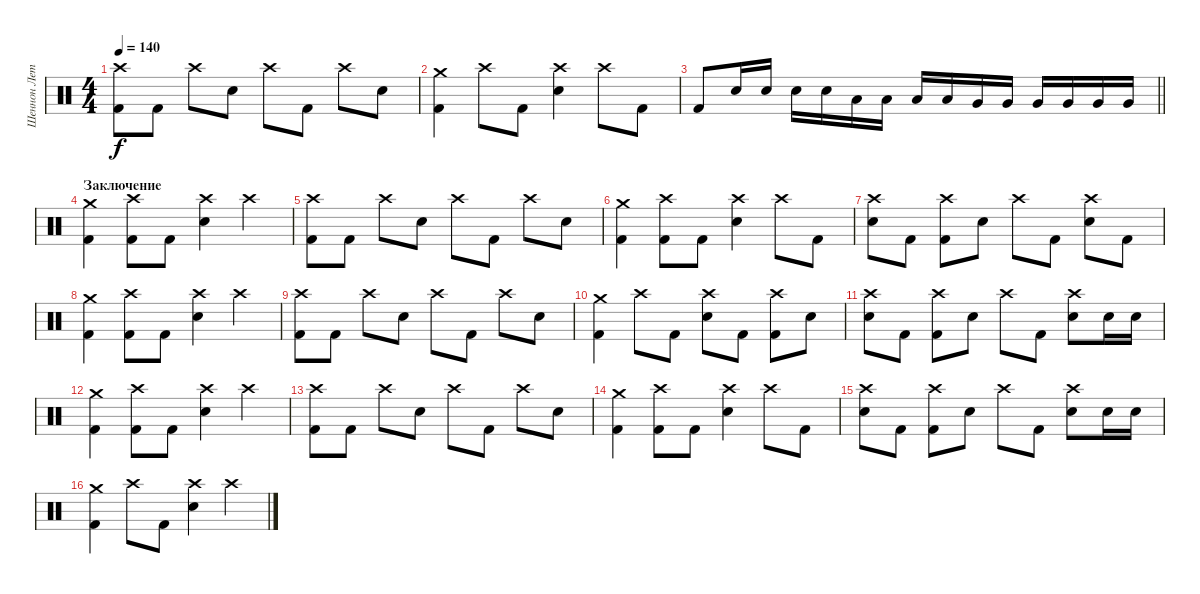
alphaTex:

\track ("Шеннон Лето" "Шеннон Лет") {instrument percussion}
\staff {score}
\articulation defaults
\ts (4 4)
\tempo 140
\clef neutral
\ks c
("Crash high (hit)" "Kick (hit) 2").8{dy f} "Kick (hit) 2".8 "Crash high (hit)".8 "Electric Snare (hit)".8 "Crash high (hit)".8 "Kick (hit) 2".8 "Crash high (hit)".8 "Electric Snare (hit)".8 |
("Crash medium (hit)" "Kick (hit) 2").4 "Crash high (hit)".8 "Kick (hit) 2".8 ("Crash high (hit)" "Electric Snare (hit)").4 "Crash high (hit)".8 "Kick (hit) 2".8 |
\barLineRight lightlight "Kick (hit) 2".8 "Electric Snare (hit)".16 "Electric Snare (hit)".16 "Electric Snare (hit)".16 "Electric Snare (hit)".16 "Low Tom (hit)".16 "Low Tom (hit)".16 "Low Tom (hit)".16 "Low Tom (hit)".16 "Very Low Tom (hit)".16 "Very Low Tom (hit)".16 "Very Low Tom (hit)".16 "Very Low Tom (hit)".16 "Very Low Tom (hit)".16 "Very Low Tom (hit)".16
|
\section ("" "Заключение")
("Crash medium (hit)" "Kick (hit) 2").4 ("Crash high (hit)" "Kick (hit) 2").8 "Kick (hit) 2".8 ("Crash high (hit)" "Electric Snare (hit)").4 "Crash high (hit)".4 |
("Crash high (hit)" "Kick (hit) 2").8 "Kick (hit) 2".8 "Crash high (hit)".8 "Electric Snare (hit)".8 "Crash high (hit)".8 "Kick (hit) 2".8 "Crash high (hit)".8 "Electric Snare (hit)".8 |
("Crash medium (hit)" "Kick (hit) 2").4 ("Crash high (hit)" "Kick (hit) 2").8 "Kick (hit) 2".8 ("Crash high (hit)" "Electric Snare (hit)").4 "Crash high (hit)".8 "Kick (hit) 2".8 |
("Crash high (hit)" "Electric Snare (hit)").8 "Kick (hit) 2".8 ("Crash high (hit)" "Kick (hit) 2").8 "Electric Snare (hit)".8 "Crash high (hit)".8 "Kick (hit) 2".8 ("Crash high (hit)" "Electric Snare (hit)").8 "Kick (hit) 2".8 |
("Crash medium (hit)" "Kick (hit) 2").4 ("Crash high (hit)" "Kick (hit) 2").8 "Kick (hit) 2".8 ("Crash high (hit)" "Electric Snare (hit)").4 "Crash high (hit)".4 |
("Crash high (hit)" "Kick (hit) 2").8 "Kick (hit) 2".8 "Crash high (hit)".8 "Electric Snare (hit)".8 "Crash high (hit)".8 "Kick (hit) 2".8 "Crash high (hit)".8 "Electric Snare (hit)".8 |
("Crash medium (hit)" "Kick (hit) 2").4 "Crash high (hit)".8 "Kick (hit) 2".8 ("Crash high (hit)" "Electric Snare (hit)").8 "Kick (hit) 2".8 ("Crash high (hit)" "Kick (hit) 2").8 "Electric Snare (hit)".8 |
("Crash high (hit)" "Electric Snare (hit)").8 "Kick (hit) 2".8 ("Crash high (hit)" "Kick (hit) 2").8 "Electric Snare (hit)".8 "Crash high (hit)".8 "Kick (hit) 2".8 ("Crash high (hit)" "Electric Snare (hit)").8 "Electric Snare (hit)".16 "Electric Snare (hit)".16 |
("Crash medium (hit)" "Kick (hit) 2").4 ("Crash high (hit)" "Kick (hit) 2").8 "Kick (hit) 2".8 ("Crash high (hit)" "Electric Snare (hit)").4 "Crash high (hit)".4 |
("Crash high (hit)" "Kick (hit) 2").8 "Kick (hit) 2".8 "Crash high (hit)".8 "Electric Snare (hit)".8 "Crash high (hit)".8 "Kick (hit) 2".8 "Crash high (hit)".8 "Electric Snare (hit)".8 |
("Crash medium (hit)" "Kick (hit) 2").4 ("Crash high (hit)" "Kick (hit) 2").8 "Kick (hit) 2".8 ("Crash high (hit)" "Electric Snare (hit)").4 "Crash high (hit)".8 "Kick (hit) 2".8 |
("Crash high (hit)" "Electric Snare (hit)").8 "Kick (hit) 2".8 ("Crash high (hit)" "Kick (hit) 2").8 "Electric Snare (hit)".8 "Crash high (hit)".8 "Kick (hit) 2".8 ("Crash high (hit)" "Electric Snare (hit)").8 "Electric Snare (hit)".16 "Electric Snare (hit)".16 |
("Crash medium (hit)" "Kick (hit) 2").4 "Crash high (hit)".8 "Kick (hit) 2".8 ("Crash high (hit)" "Electric Snare (hit)").4 "Crash high (hit)".4
